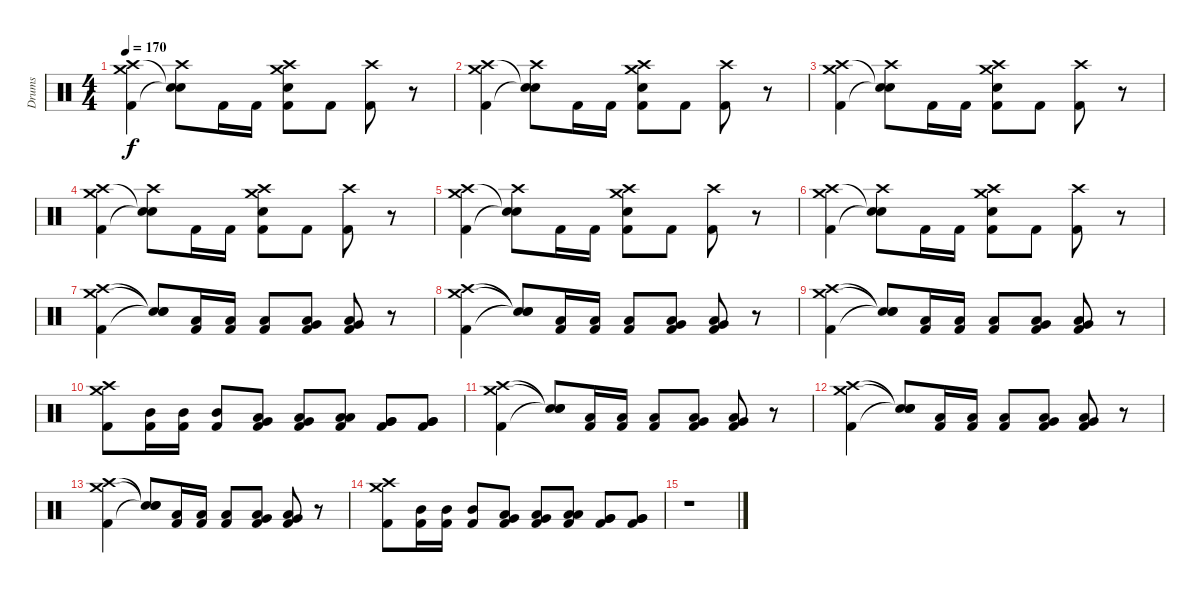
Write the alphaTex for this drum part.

\track ("Drums" "Drums") {instrument percussion}
\staff {score}
\articulation defaults
\ts (4 4)
\tempo 170
\clef neutral
\ks c
("Crash medium (hit)" "Crash high (hit)" "Kick (hit) 2").4{dy f} ("Crash high (hit)" "Snare (hit)"{t} "Snare (hit)"{t}).8 "Kick (hit) 2".16 "Kick (hit) 2".16 ("Crash high (hit)" "Snare (hit) 2" "Crash medium (hit)" "Kick (hit) 2").8 "Kick (hit) 2".8 ("Crash high (hit)" "Kick (hit) 2").8 r.8 |
("Crash medium (hit)" "Crash high (hit)" "Kick (hit) 2").4 ("Crash high (hit)" "Snare (hit)"{t} "Snare (hit)"{t}).8 "Kick (hit) 2".16 "Kick (hit) 2".16 ("Crash high (hit)" "Snare (hit) 2" "Crash medium (hit)" "Kick (hit) 2").8 "Kick (hit) 2".8 ("Crash high (hit)" "Kick (hit) 2").8 r.8 |
("Crash medium (hit)" "Crash high (hit)" "Kick (hit) 2").4 ("Crash high (hit)" "Snare (hit)"{t} "Snare (hit)"{t}).8 "Kick (hit) 2".16 "Kick (hit) 2".16 ("Crash high (hit)" "Snare (hit) 2" "Crash medium (hit)" "Kick (hit) 2").8 "Kick (hit) 2".8 ("Crash high (hit)" "Kick (hit) 2").8 r.8 |
("Crash medium (hit)" "Crash high (hit)" "Kick (hit) 2").4 ("Crash high (hit)" "Snare (hit)"{t} "Snare (hit)"{t}).8 "Kick (hit) 2".16 "Kick (hit) 2".16 ("Crash high (hit)" "Snare (hit) 2" "Crash medium (hit)" "Kick (hit) 2").8 "Kick (hit) 2".8 ("Crash high (hit)" "Kick (hit) 2").8 r.8 |
("Crash medium (hit)" "Crash high (hit)" "Kick (hit) 2").4 ("Crash high (hit)" "Snare (hit)"{t} "Snare (hit)"{t}).8 "Kick (hit) 2".16 "Kick (hit) 2".16 ("Crash high (hit)" "Snare (hit) 2" "Crash medium (hit)" "Kick (hit) 2").8 "Kick (hit) 2".8 ("Crash high (hit)" "Kick (hit) 2").8 r.8 |
("Crash medium (hit)" "Crash high (hit)" "Kick (hit) 2").4 ("Crash high (hit)" "Snare (hit)"{t} "Snare (hit)"{t}).8 "Kick (hit) 2".16 "Kick (hit) 2".16 ("Crash high (hit)" "Snare (hit) 2" "Crash medium (hit)" "Kick (hit) 2").8 "Kick (hit) 2".8 ("Crash high (hit)" "Kick (hit) 2").8 r.8 |
("Crash medium (hit)" "Crash high (hit)" "Kick (hit) 2").4 ("Snare (hit)"{t} "Snare (hit)"{t} "Snare (hit)"{t}).8 ("Low Tom (hit)" "Kick (hit) 2").16 ("Low Tom (hit)" "Kick (hit) 2").16 ("Low Tom (hit)" "Kick (hit) 2").8 ("Low Tom (hit)" "Very Low Tom (hit)" "Kick (hit) 2").8 ("Low Tom (hit)" "Very Low Tom (hit)" "Kick (hit) 2").8 r.8 |
("Crash medium (hit)" "Crash high (hit)" "Kick (hit) 2").4 ("Snare (hit)"{t} "Snare (hit)"{t} "Snare (hit)"{t}).8 ("Low Tom (hit)" "Kick (hit) 2").16 ("Low Tom (hit)" "Kick (hit) 2").16 ("Low Tom (hit)" "Kick (hit) 2").8 ("Low Tom (hit)" "Very Low Tom (hit)" "Kick (hit) 2").8 ("Low Tom (hit)" "Very Low Tom (hit)" "Kick (hit) 2").8 r.8 |
("Crash medium (hit)" "Crash high (hit)" "Kick (hit) 2").4 ("Snare (hit)"{t} "Snare (hit)"{t} "Snare (hit)"{t}).8 ("Low Tom (hit)" "Kick (hit) 2").16 ("Low Tom (hit)" "Kick (hit) 2").16 ("Low Tom (hit)" "Kick (hit) 2").8 ("Low Tom (hit)" "Very Low Tom (hit)" "Kick (hit) 2").8 ("Low Tom (hit)" "Very Low Tom (hit)" "Kick (hit) 2").8 r.8 |
("Crash medium (hit)" "Crash high (hit)" "Kick (hit) 2").8 ("Mid Tom (hit)" "Kick (hit) 2").16 ("Mid Tom (hit)" "Kick (hit) 2").16 ("Mid Tom (hit)" "Kick (hit) 2").8 ("Low Tom (hit)" "Very Low Tom (hit)" "Kick (hit) 2").8 ("Low Tom (hit)" "Very Low Tom (hit)" "Kick (hit) 2").8 ("Low Tom (hit)" "Low Tom (hit)" "Kick (hit) 2").8 ("Very Low Tom (hit)" "Very Low Tom (hit)" "Kick (hit) 2").8 ("Very Low Tom (hit)" "Very Low Tom (hit)" "Kick (hit) 2").8 |
("Crash medium (hit)" "Crash high (hit)" "Kick (hit) 2").4 ("Snare (hit)"{t} "Snare (hit)"{t} "Snare (hit)"{t}).8 ("Low Tom (hit)" "Kick (hit) 2").16 ("Low Tom (hit)" "Kick (hit) 2").16 ("Low Tom (hit)" "Kick (hit) 2").8 ("Low Tom (hit)" "Very Low Tom (hit)" "Kick (hit) 2").8 ("Low Tom (hit)" "Very Low Tom (hit)" "Kick (hit) 2").8 r.8 |
("Crash medium (hit)" "Crash high (hit)" "Kick (hit) 2").4 ("Snare (hit)"{t} "Snare (hit)"{t} "Snare (hit)"{t}).8 ("Low Tom (hit)" "Kick (hit) 2").16 ("Low Tom (hit)" "Kick (hit) 2").16 ("Low Tom (hit)" "Kick (hit) 2").8 ("Low Tom (hit)" "Very Low Tom (hit)" "Kick (hit) 2").8 ("Low Tom (hit)" "Very Low Tom (hit)" "Kick (hit) 2").8 r.8 |
("Crash medium (hit)" "Crash high (hit)" "Kick (hit) 2").4 ("Snare (hit)"{t} "Snare (hit)"{t} "Snare (hit)"{t}).8 ("Low Tom (hit)" "Kick (hit) 2").16 ("Low Tom (hit)" "Kick (hit) 2").16 ("Low Tom (hit)" "Kick (hit) 2").8 ("Low Tom (hit)" "Very Low Tom (hit)" "Kick (hit) 2").8 ("Low Tom (hit)" "Very Low Tom (hit)" "Kick (hit) 2").8 r.8 |
("Crash medium (hit)" "Crash high (hit)" "Kick (hit) 2").8 ("Mid Tom (hit)" "Kick (hit) 2").16 ("Mid Tom (hit)" "Kick (hit) 2").16 ("Mid Tom (hit)" "Kick (hit) 2").8 ("Low Tom (hit)" "Very Low Tom (hit)" "Kick (hit) 2").8 ("Low Tom (hit)" "Very Low Tom (hit)" "Kick (hit) 2").8 ("Low Tom (hit)" "Low Tom (hit)" "Kick (hit) 2").8 ("Very Low Tom (hit)" "Very Low Tom (hit)" "Kick (hit) 2").8 ("Very Low Tom (hit)" "Very Low Tom (hit)" "Kick (hit) 2").8 |
r.1
